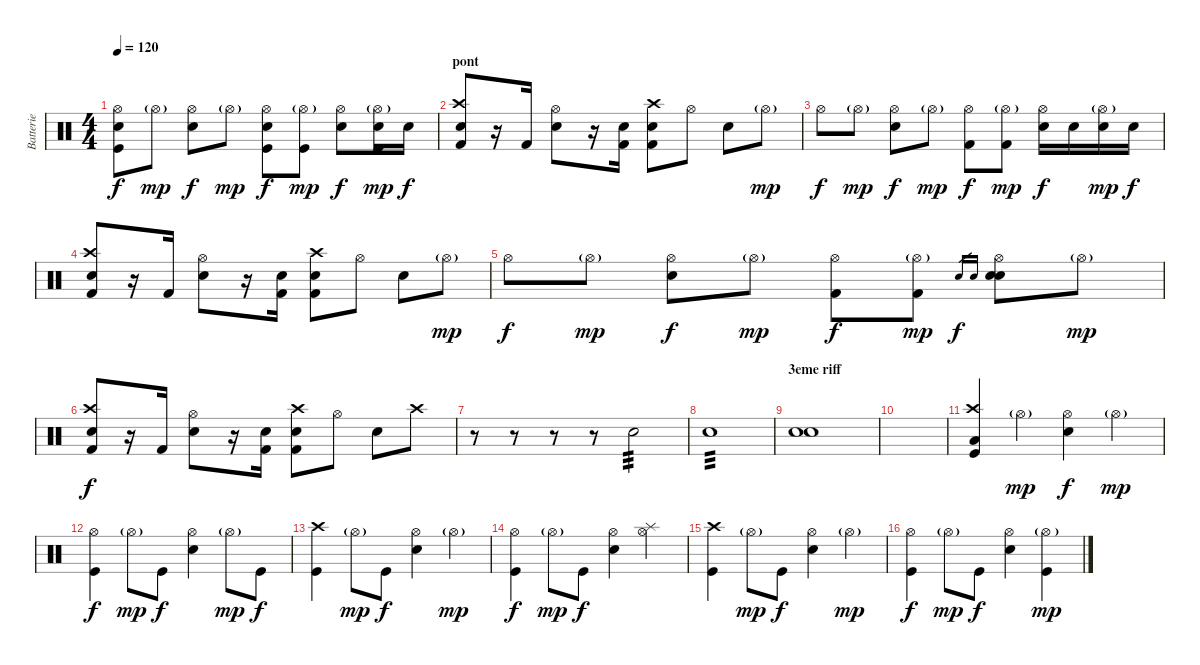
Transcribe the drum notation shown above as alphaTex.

\track ("Batterie" "Batterie") {instrument percussion}
\staff {score}
\articulation defaults
\ts (4 4)
\tempo 120
\clef neutral
\ks c
("Hi-Hat (open)" "Kick (hit)" "Electric Snare (hit)").8{dy f} "Hi-Hat (open)"{g}.8{dy mp} ("Hi-Hat (open)" "Electric Snare (hit)").8{dy f} "Hi-Hat (open)"{g}.8{dy mp} ("Hi-Hat (open)" "Kick (hit)" "Electric Snare (hit)").8{dy f} ("Hi-Hat (open)"{g} "Kick (hit)").8{dy mp} ("Hi-Hat (open)" "Electric Snare (hit)").8{dy f} ("Hi-Hat (open)"{g} "Kick (hit)" "Electric Snare (hit)").16{dy mp} "Electric Snare (hit)".16{dy f} |
\section ("" "pont")
("Crash high (hit)" "Kick (hit) 2" "Electric Snare (hit)").8 r.16 "Kick (hit) 2".16 ("Hi-Hat (open)" "Electric Snare (hit)").8 r.16 ("Kick (hit) 2" "Electric Snare (hit)").16 ("Crash high (hit)" "Kick (hit) 2" "Electric Snare (hit)").8 "Hi-Hat (open)".8 "Electric Snare (hit)".8 "Hi-Hat (open)"{g}.8{dy mp} |
"Hi-Hat (open)".8{dy f} "Hi-Hat (open)"{g}.8{dy mp} ("Hi-Hat (open)" "Electric Snare (hit)").8{dy f} "Hi-Hat (open)"{g}.8{dy mp} ("Hi-Hat (open)" "Kick (hit) 2").8{dy f} ("Hi-Hat (open)"{g} "Kick (hit) 2").8{dy mp} ("Hi-Hat (open)" "Electric Snare (hit)").16{dy f} "Electric Snare (hit)".16 ("Hi-Hat (open)"{g} "Electric Snare (hit)").16{dy mp} "Electric Snare (hit)".16{dy f} |
("Crash high (hit)" "Kick (hit) 2" "Electric Snare (hit)").8 r.16 "Kick (hit) 2".16 ("Hi-Hat (open)" "Electric Snare (hit)").8 r.16 ("Kick (hit) 2" "Electric Snare (hit)").16 ("Crash high (hit)" "Kick (hit) 2" "Electric Snare (hit)").8 "Hi-Hat (open)".8 "Electric Snare (hit)".8 "Hi-Hat (open)"{g}.8{dy mp} |
"Hi-Hat (open)".8{dy f} "Hi-Hat (open)"{g}.8{dy mp} ("Hi-Hat (open)" "Electric Snare (hit)").8{dy f} "Hi-Hat (open)"{g}.8{dy mp} ("Hi-Hat (open)" "Kick (hit) 2").8{dy f} ("Hi-Hat (open)"{g} "Kick (hit) 2").8{dy mp} "Snare (hit) 2".16{gr dy f} "Electric Snare (hit)".16{gr} ("Hi-Hat (open)" "Snare (hit) 2" "Electric Snare (hit)").8 "Hi-Hat (open)"{g}.8{dy mp} |
("Crash high (hit)" "Kick (hit) 2" "Electric Snare (hit)").8{dy f} r.16 "Kick (hit) 2".16 ("Hi-Hat (open)" "Electric Snare (hit)").8 r.16 ("Kick (hit) 2" "Electric Snare (hit)").16 ("Crash high (hit)" "Kick (hit) 2" "Electric Snare (hit)").8 "Hi-Hat (open)".8 "Electric Snare (hit)".8 "Crash high (hit)".8{volume 0} |
r.8 r.8 r.8 r.8{volume 0} "Snare (hit) 2".2{tp 3 volume 14} |
"Snare (hit) 2".1{tp 3} |
\section ("" "3eme riff")
("Electric Snare (hit)" "Snare (hit) 2").1 |
|
("Crash high (hit)" "Low Floor Tom (hit)" "Kick (hit)").4 "Hi-Hat (open)"{g}.4{dy mp} ("Hi-Hat (open)" "Electric Snare (hit)").4{dy f} "Hi-Hat (open)"{g}.4{dy mp} |
("Hi-Hat (open)" "Kick (hit)").4{dy f} "Hi-Hat (open)"{g}.8{dy mp} "Kick (hit)".8{dy f} ("Hi-Hat (open)" "Electric Snare (hit)").4 "Hi-Hat (open)"{g}.8{dy mp} "Kick (hit)".8{dy f} |
("Crash high (hit)" "Kick (hit)").4 "Hi-Hat (open)"{g}.8{dy mp} "Kick (hit)".8{dy f} ("Hi-Hat (open)" "Electric Snare (hit)").4 "Hi-Hat (open)"{g}.4{dy mp} |
("Hi-Hat (open)" "Kick (hit)").4{dy f} "Hi-Hat (open)"{g}.8{dy mp} "Kick (hit)".8{dy f} ("Hi-Hat (open)" "Electric Snare (hit)").4 ("Hi-Hat (open)" "Splash (hit)").4 |
("Crash high (hit)" "Kick (hit)").4 "Hi-Hat (open)"{g}.8{dy mp} "Kick (hit)".8{dy f} ("Hi-Hat (open)" "Electric Snare (hit)").4 "Hi-Hat (open)"{g}.4{dy mp} |
("Hi-Hat (open)" "Kick (hit)").4{dy f} "Hi-Hat (open)"{g}.8{dy mp} "Kick (hit)".8{dy f} ("Hi-Hat (open)" "Electric Snare (hit)").4 ("Hi-Hat (open)"{g} "Kick (hit)").4{dy mp}
